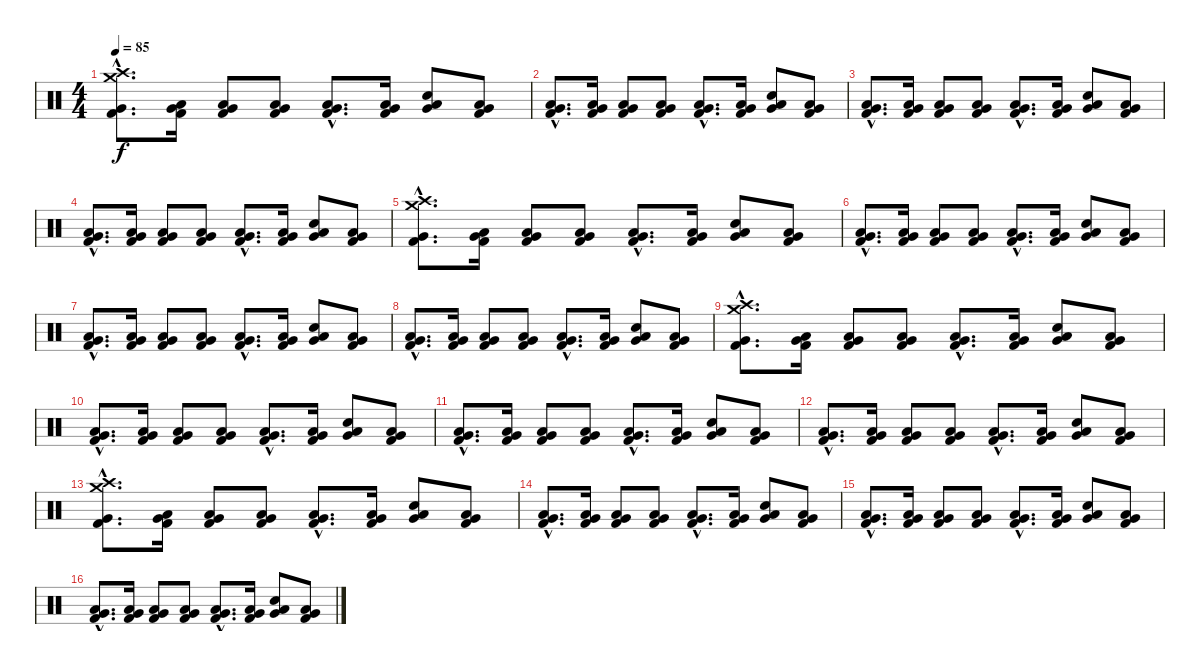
\track "" {instrument percussion}
\staff {score}
\articulation defaults
\ts (4 4)
\tempo 85
\clef neutral
\ks c
("Crash high (hit)"{hac} "Crash medium (hit)"{hac} "Very Low Tom (hit)"{hac} "Kick (hit) 2"{hac}).8{d dy f} ("Low Tom (hit)" "Very Low Tom (hit)" "Kick (hit) 2").16 ("Low Tom (hit)" "Very Low Tom (hit)" "Kick (hit) 2").8 ("Low Tom (hit)" "Very Low Tom (hit)" "Kick (hit) 2").8 ("Low Tom (hit)"{hac} "Very Low Tom (hit)"{hac} "Kick (hit) 2"{hac}).8{d} ("Low Tom (hit)" "Very Low Tom (hit)" "Kick (hit) 2").16 ("Low Tom (hit)" "Very Low Tom (hit)" "Snare (hit) 2").8 ("Low Tom (hit)" "Very Low Tom (hit)" "Kick (hit) 2").8 |
("Low Tom (hit)"{hac} "Very Low Tom (hit)"{hac} "Kick (hit) 2"{hac}).8{d} ("Low Tom (hit)" "Very Low Tom (hit)" "Kick (hit) 2").16 ("Low Tom (hit)" "Very Low Tom (hit)" "Kick (hit) 2").8 ("Low Tom (hit)" "Very Low Tom (hit)" "Kick (hit) 2").8 ("Low Tom (hit)"{hac} "Very Low Tom (hit)"{hac} "Kick (hit) 2"{hac}).8{d} ("Low Tom (hit)" "Very Low Tom (hit)" "Kick (hit) 2").16 ("Low Tom (hit)" "Very Low Tom (hit)" "Snare (hit) 2").8 ("Low Tom (hit)" "Very Low Tom (hit)" "Kick (hit) 2").8 |
("Low Tom (hit)"{hac} "Very Low Tom (hit)"{hac} "Kick (hit) 2"{hac}).8{d} ("Low Tom (hit)" "Very Low Tom (hit)" "Kick (hit) 2").16 ("Low Tom (hit)" "Very Low Tom (hit)" "Kick (hit) 2").8 ("Low Tom (hit)" "Very Low Tom (hit)" "Kick (hit) 2").8 ("Low Tom (hit)"{hac} "Very Low Tom (hit)"{hac} "Kick (hit) 2"{hac}).8{d} ("Low Tom (hit)" "Very Low Tom (hit)" "Kick (hit) 2").16 ("Low Tom (hit)" "Very Low Tom (hit)" "Snare (hit) 2").8 ("Low Tom (hit)" "Very Low Tom (hit)" "Kick (hit) 2").8 |
("Low Tom (hit)"{hac} "Very Low Tom (hit)"{hac} "Kick (hit) 2"{hac}).8{d} ("Low Tom (hit)" "Very Low Tom (hit)" "Kick (hit) 2").16 ("Low Tom (hit)" "Very Low Tom (hit)" "Kick (hit) 2").8 ("Low Tom (hit)" "Very Low Tom (hit)" "Kick (hit) 2").8 ("Low Tom (hit)"{hac} "Very Low Tom (hit)"{hac} "Kick (hit) 2"{hac}).8{d} ("Low Tom (hit)" "Very Low Tom (hit)" "Kick (hit) 2").16 ("Low Tom (hit)" "Very Low Tom (hit)" "Snare (hit) 2").8 ("Low Tom (hit)" "Very Low Tom (hit)" "Kick (hit) 2").8 |
("Crash high (hit)"{hac} "Crash medium (hit)"{hac} "Very Low Tom (hit)"{hac} "Kick (hit) 2"{hac}).8{d} ("Low Tom (hit)" "Very Low Tom (hit)" "Kick (hit) 2").16 ("Low Tom (hit)" "Very Low Tom (hit)" "Kick (hit) 2").8 ("Low Tom (hit)" "Very Low Tom (hit)" "Kick (hit) 2").8 ("Low Tom (hit)"{hac} "Very Low Tom (hit)"{hac} "Kick (hit) 2"{hac}).8{d} ("Low Tom (hit)" "Very Low Tom (hit)" "Kick (hit) 2").16 ("Low Tom (hit)" "Very Low Tom (hit)" "Snare (hit) 2").8 ("Low Tom (hit)" "Very Low Tom (hit)" "Kick (hit) 2").8 |
("Low Tom (hit)"{hac} "Very Low Tom (hit)"{hac} "Kick (hit) 2"{hac}).8{d} ("Low Tom (hit)" "Very Low Tom (hit)" "Kick (hit) 2").16 ("Low Tom (hit)" "Very Low Tom (hit)" "Kick (hit) 2").8 ("Low Tom (hit)" "Very Low Tom (hit)" "Kick (hit) 2").8 ("Low Tom (hit)"{hac} "Very Low Tom (hit)"{hac} "Kick (hit) 2"{hac}).8{d} ("Low Tom (hit)" "Very Low Tom (hit)" "Kick (hit) 2").16 ("Low Tom (hit)" "Very Low Tom (hit)" "Snare (hit) 2").8 ("Low Tom (hit)" "Very Low Tom (hit)" "Kick (hit) 2").8 |
("Low Tom (hit)"{hac} "Very Low Tom (hit)"{hac} "Kick (hit) 2"{hac}).8{d} ("Low Tom (hit)" "Very Low Tom (hit)" "Kick (hit) 2").16 ("Low Tom (hit)" "Very Low Tom (hit)" "Kick (hit) 2").8 ("Low Tom (hit)" "Very Low Tom (hit)" "Kick (hit) 2").8 ("Low Tom (hit)"{hac} "Very Low Tom (hit)"{hac} "Kick (hit) 2"{hac}).8{d} ("Low Tom (hit)" "Very Low Tom (hit)" "Kick (hit) 2").16 ("Low Tom (hit)" "Very Low Tom (hit)" "Snare (hit) 2").8 ("Low Tom (hit)" "Very Low Tom (hit)" "Kick (hit) 2").8 |
("Low Tom (hit)"{hac} "Very Low Tom (hit)"{hac} "Kick (hit) 2"{hac}).8{d} ("Low Tom (hit)" "Very Low Tom (hit)" "Kick (hit) 2").16 ("Low Tom (hit)" "Very Low Tom (hit)" "Kick (hit) 2").8 ("Low Tom (hit)" "Very Low Tom (hit)" "Kick (hit) 2").8 ("Low Tom (hit)"{hac} "Very Low Tom (hit)"{hac} "Kick (hit) 2"{hac}).8{d} ("Low Tom (hit)" "Very Low Tom (hit)" "Kick (hit) 2").16 ("Low Tom (hit)" "Very Low Tom (hit)" "Snare (hit) 2").8 ("Low Tom (hit)" "Very Low Tom (hit)" "Kick (hit) 2").8 |
("Crash high (hit)"{hac} "Crash medium (hit)"{hac} "Very Low Tom (hit)"{hac} "Kick (hit) 2"{hac}).8{d} ("Low Tom (hit)" "Very Low Tom (hit)" "Kick (hit) 2").16 ("Low Tom (hit)" "Very Low Tom (hit)" "Kick (hit) 2").8 ("Low Tom (hit)" "Very Low Tom (hit)" "Kick (hit) 2").8 ("Low Tom (hit)"{hac} "Very Low Tom (hit)"{hac} "Kick (hit) 2"{hac}).8{d} ("Low Tom (hit)" "Very Low Tom (hit)" "Kick (hit) 2").16 ("Low Tom (hit)" "Very Low Tom (hit)" "Snare (hit) 2").8 ("Low Tom (hit)" "Very Low Tom (hit)" "Kick (hit) 2").8 |
("Low Tom (hit)"{hac} "Very Low Tom (hit)"{hac} "Kick (hit) 2"{hac}).8{d} ("Low Tom (hit)" "Very Low Tom (hit)" "Kick (hit) 2").16 ("Low Tom (hit)" "Very Low Tom (hit)" "Kick (hit) 2").8 ("Low Tom (hit)" "Very Low Tom (hit)" "Kick (hit) 2").8 ("Low Tom (hit)"{hac} "Very Low Tom (hit)"{hac} "Kick (hit) 2"{hac}).8{d} ("Low Tom (hit)" "Very Low Tom (hit)" "Kick (hit) 2").16 ("Low Tom (hit)" "Very Low Tom (hit)" "Snare (hit) 2").8 ("Low Tom (hit)" "Very Low Tom (hit)" "Kick (hit) 2").8 |
("Low Tom (hit)"{hac} "Very Low Tom (hit)"{hac} "Kick (hit) 2"{hac}).8{d} ("Low Tom (hit)" "Very Low Tom (hit)" "Kick (hit) 2").16 ("Low Tom (hit)" "Very Low Tom (hit)" "Kick (hit) 2").8 ("Low Tom (hit)" "Very Low Tom (hit)" "Kick (hit) 2").8 ("Low Tom (hit)"{hac} "Very Low Tom (hit)"{hac} "Kick (hit) 2"{hac}).8{d} ("Low Tom (hit)" "Very Low Tom (hit)" "Kick (hit) 2").16 ("Low Tom (hit)" "Very Low Tom (hit)" "Snare (hit) 2").8 ("Low Tom (hit)" "Very Low Tom (hit)" "Kick (hit) 2").8 |
("Low Tom (hit)"{hac} "Very Low Tom (hit)"{hac} "Kick (hit) 2"{hac}).8{d} ("Low Tom (hit)" "Very Low Tom (hit)" "Kick (hit) 2").16 ("Low Tom (hit)" "Very Low Tom (hit)" "Kick (hit) 2").8 ("Low Tom (hit)" "Very Low Tom (hit)" "Kick (hit) 2").8 ("Low Tom (hit)"{hac} "Very Low Tom (hit)"{hac} "Kick (hit) 2"{hac}).8{d} ("Low Tom (hit)" "Very Low Tom (hit)" "Kick (hit) 2").16 ("Low Tom (hit)" "Very Low Tom (hit)" "Snare (hit) 2").8 ("Low Tom (hit)" "Very Low Tom (hit)" "Kick (hit) 2").8 |
("Crash high (hit)"{hac} "Crash medium (hit)"{hac} "Very Low Tom (hit)"{hac} "Kick (hit) 2"{hac}).8{d} ("Low Tom (hit)" "Very Low Tom (hit)" "Kick (hit) 2").16 ("Low Tom (hit)" "Very Low Tom (hit)" "Kick (hit) 2").8 ("Low Tom (hit)" "Very Low Tom (hit)" "Kick (hit) 2").8 ("Low Tom (hit)"{hac} "Very Low Tom (hit)"{hac} "Kick (hit) 2"{hac}).8{d} ("Low Tom (hit)" "Very Low Tom (hit)" "Kick (hit) 2").16 ("Low Tom (hit)" "Very Low Tom (hit)" "Snare (hit) 2").8 ("Low Tom (hit)" "Very Low Tom (hit)" "Kick (hit) 2").8 |
("Low Tom (hit)"{hac} "Very Low Tom (hit)"{hac} "Kick (hit) 2"{hac}).8{d} ("Low Tom (hit)" "Very Low Tom (hit)" "Kick (hit) 2").16 ("Low Tom (hit)" "Very Low Tom (hit)" "Kick (hit) 2").8 ("Low Tom (hit)" "Very Low Tom (hit)" "Kick (hit) 2").8 ("Low Tom (hit)"{hac} "Very Low Tom (hit)"{hac} "Kick (hit) 2"{hac}).8{d} ("Low Tom (hit)" "Very Low Tom (hit)" "Kick (hit) 2").16 ("Low Tom (hit)" "Very Low Tom (hit)" "Snare (hit) 2").8 ("Low Tom (hit)" "Very Low Tom (hit)" "Kick (hit) 2").8 |
("Low Tom (hit)"{hac} "Very Low Tom (hit)"{hac} "Kick (hit) 2"{hac}).8{d} ("Low Tom (hit)" "Very Low Tom (hit)" "Kick (hit) 2").16 ("Low Tom (hit)" "Very Low Tom (hit)" "Kick (hit) 2").8 ("Low Tom (hit)" "Very Low Tom (hit)" "Kick (hit) 2").8 ("Low Tom (hit)"{hac} "Very Low Tom (hit)"{hac} "Kick (hit) 2"{hac}).8{d} ("Low Tom (hit)" "Very Low Tom (hit)" "Kick (hit) 2").16 ("Low Tom (hit)" "Very Low Tom (hit)" "Snare (hit) 2").8 ("Low Tom (hit)" "Very Low Tom (hit)" "Kick (hit) 2").8 |
("Low Tom (hit)"{hac} "Very Low Tom (hit)"{hac} "Kick (hit) 2"{hac}).8{d} ("Low Tom (hit)" "Very Low Tom (hit)" "Kick (hit) 2").16 ("Low Tom (hit)" "Very Low Tom (hit)" "Kick (hit) 2").8 ("Low Tom (hit)" "Very Low Tom (hit)" "Kick (hit) 2").8 ("Low Tom (hit)"{hac} "Very Low Tom (hit)"{hac} "Kick (hit) 2"{hac}).8{d} ("Low Tom (hit)" "Very Low Tom (hit)" "Kick (hit) 2").16 ("Low Tom (hit)" "Very Low Tom (hit)" "Snare (hit) 2").8 ("Low Tom (hit)" "Very Low Tom (hit)" "Kick (hit) 2").8
